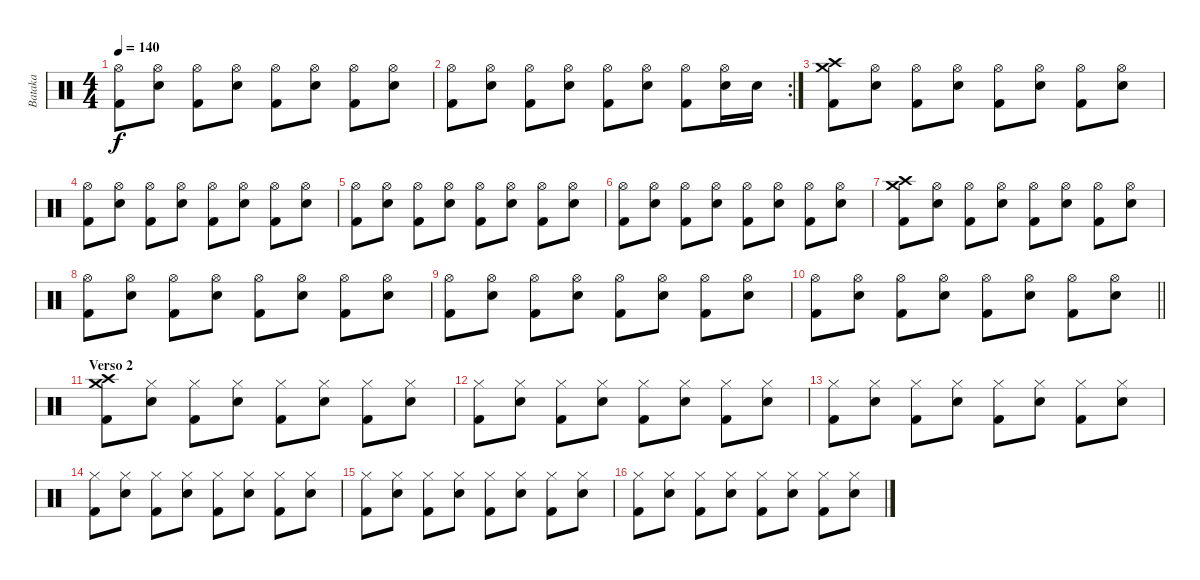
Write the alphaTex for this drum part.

\track ("Bataka" "Bataka") {instrument percussion}
\staff {score}
\articulation defaults
\ts (4 4)
\tempo 140
\clef neutral
\ks c
("Hi-Hat (open)" "Kick (hit) 2").8{dy f} ("Hi-Hat (open)" "Electric Snare (hit)").8 ("Hi-Hat (open)" "Kick (hit) 2").8 ("Hi-Hat (open)" "Electric Snare (hit)").8 ("Hi-Hat (open)" "Kick (hit) 2").8 ("Hi-Hat (open)" "Electric Snare (hit)").8 ("Hi-Hat (open)" "Kick (hit) 2").8 ("Hi-Hat (open)" "Electric Snare (hit)").8 |
\rc 2
("Hi-Hat (open)" "Kick (hit) 2").8 ("Hi-Hat (open)" "Electric Snare (hit)").8 ("Hi-Hat (open)" "Kick (hit) 2").8 ("Hi-Hat (open)" "Electric Snare (hit)").8 ("Hi-Hat (open)" "Kick (hit) 2").8 ("Hi-Hat (open)" "Electric Snare (hit)").8 ("Hi-Hat (open)" "Kick (hit) 2").8 ("Hi-Hat (open)" "Electric Snare (hit)").16 "Electric Snare (hit)".16 |
("Crash high (hit)" "Crash medium (hit)" "Kick (hit) 2").8 ("Hi-Hat (open)" "Electric Snare (hit)").8 ("Hi-Hat (open)" "Kick (hit) 2").8 ("Hi-Hat (open)" "Electric Snare (hit)").8 ("Hi-Hat (open)" "Kick (hit) 2").8 ("Hi-Hat (open)" "Electric Snare (hit)").8 ("Hi-Hat (open)" "Kick (hit) 2").8 ("Hi-Hat (open)" "Electric Snare (hit)").8 |
("Hi-Hat (open)" "Kick (hit) 2").8 ("Hi-Hat (open)" "Electric Snare (hit)").8 ("Hi-Hat (open)" "Kick (hit) 2").8 ("Hi-Hat (open)" "Electric Snare (hit)").8 ("Hi-Hat (open)" "Kick (hit) 2").8 ("Hi-Hat (open)" "Electric Snare (hit)").8 ("Hi-Hat (open)" "Kick (hit) 2").8 ("Hi-Hat (open)" "Electric Snare (hit)").8 |
("Hi-Hat (open)" "Kick (hit) 2").8 ("Hi-Hat (open)" "Electric Snare (hit)").8 ("Hi-Hat (open)" "Kick (hit) 2").8 ("Hi-Hat (open)" "Electric Snare (hit)").8 ("Hi-Hat (open)" "Kick (hit) 2").8 ("Hi-Hat (open)" "Electric Snare (hit)").8 ("Hi-Hat (open)" "Kick (hit) 2").8 ("Hi-Hat (open)" "Electric Snare (hit)").8 |
("Hi-Hat (open)" "Kick (hit) 2").8 ("Hi-Hat (open)" "Electric Snare (hit)").8 ("Hi-Hat (open)" "Kick (hit) 2").8 ("Hi-Hat (open)" "Electric Snare (hit)").8 ("Hi-Hat (open)" "Kick (hit) 2").8 ("Hi-Hat (open)" "Electric Snare (hit)").8 ("Hi-Hat (open)" "Kick (hit) 2").8 ("Hi-Hat (open)" "Electric Snare (hit)").8 |
("Crash high (hit)" "Crash medium (hit)" "Kick (hit) 2").8 ("Hi-Hat (open)" "Electric Snare (hit)").8 ("Hi-Hat (open)" "Kick (hit) 2").8 ("Hi-Hat (open)" "Electric Snare (hit)").8 ("Hi-Hat (open)" "Kick (hit) 2").8 ("Hi-Hat (open)" "Electric Snare (hit)").8 ("Hi-Hat (open)" "Kick (hit) 2").8 ("Hi-Hat (open)" "Electric Snare (hit)").8 |
("Hi-Hat (open)" "Kick (hit) 2").8 ("Hi-Hat (open)" "Electric Snare (hit)").8 ("Hi-Hat (open)" "Kick (hit) 2").8 ("Hi-Hat (open)" "Electric Snare (hit)").8 ("Hi-Hat (open)" "Kick (hit) 2").8 ("Hi-Hat (open)" "Electric Snare (hit)").8 ("Hi-Hat (open)" "Kick (hit) 2").8 ("Hi-Hat (open)" "Electric Snare (hit)").8 |
("Hi-Hat (open)" "Kick (hit) 2").8 ("Hi-Hat (open)" "Electric Snare (hit)").8 ("Hi-Hat (open)" "Kick (hit) 2").8 ("Hi-Hat (open)" "Electric Snare (hit)").8 ("Hi-Hat (open)" "Kick (hit) 2").8 ("Hi-Hat (open)" "Electric Snare (hit)").8 ("Hi-Hat (open)" "Kick (hit) 2").8 ("Hi-Hat (open)" "Electric Snare (hit)").8 |
\barLineRight lightlight
("Hi-Hat (open)" "Kick (hit) 2").8 ("Hi-Hat (open)" "Electric Snare (hit)").8 ("Hi-Hat (open)" "Kick (hit) 2").8 ("Hi-Hat (open)" "Electric Snare (hit)").8 ("Hi-Hat (open)" "Kick (hit) 2").8 ("Hi-Hat (open)" "Electric Snare (hit)").8 ("Hi-Hat (open)" "Kick (hit) 2").8 ("Hi-Hat (open)" "Electric Snare (hit)").8 |
\section ("" "Verso 2")
("Crash high (hit)" "Crash medium (hit)" "Kick (hit) 2").8 ("Hi-Hat (closed)" "Electric Snare (hit)").8 ("Hi-Hat (closed)" "Kick (hit) 2").8 ("Hi-Hat (closed)" "Electric Snare (hit)").8 ("Hi-Hat (closed)" "Kick (hit) 2").8 ("Hi-Hat (closed)" "Electric Snare (hit)").8 ("Hi-Hat (closed)" "Kick (hit) 2").8 ("Hi-Hat (closed)" "Electric Snare (hit)").8 |
("Hi-Hat (closed)" "Kick (hit) 2").8 ("Hi-Hat (closed)" "Electric Snare (hit)").8 ("Hi-Hat (closed)" "Kick (hit) 2").8 ("Hi-Hat (closed)" "Electric Snare (hit)").8 ("Hi-Hat (closed)" "Kick (hit) 2").8 ("Hi-Hat (closed)" "Electric Snare (hit)").8 ("Hi-Hat (closed)" "Kick (hit) 2").8 ("Hi-Hat (closed)" "Electric Snare (hit)").8 |
("Hi-Hat (closed)" "Kick (hit) 2").8 ("Hi-Hat (closed)" "Electric Snare (hit)").8 ("Hi-Hat (closed)" "Kick (hit) 2").8 ("Hi-Hat (closed)" "Electric Snare (hit)").8 ("Hi-Hat (closed)" "Kick (hit) 2").8 ("Hi-Hat (closed)" "Electric Snare (hit)").8 ("Hi-Hat (closed)" "Kick (hit) 2").8 ("Hi-Hat (closed)" "Electric Snare (hit)").8 |
("Hi-Hat (closed)" "Kick (hit) 2").8 ("Hi-Hat (closed)" "Electric Snare (hit)").8 ("Hi-Hat (closed)" "Kick (hit) 2").8 ("Hi-Hat (closed)" "Electric Snare (hit)").8 ("Hi-Hat (closed)" "Kick (hit) 2").8 ("Hi-Hat (closed)" "Electric Snare (hit)").8 ("Hi-Hat (closed)" "Kick (hit) 2").8 ("Hi-Hat (closed)" "Electric Snare (hit)").8 |
("Hi-Hat (closed)" "Kick (hit) 2").8 ("Hi-Hat (closed)" "Electric Snare (hit)").8 ("Hi-Hat (closed)" "Kick (hit) 2").8 ("Hi-Hat (closed)" "Electric Snare (hit)").8 ("Hi-Hat (closed)" "Kick (hit) 2").8 ("Hi-Hat (closed)" "Electric Snare (hit)").8 ("Hi-Hat (closed)" "Kick (hit) 2").8 ("Hi-Hat (closed)" "Electric Snare (hit)").8 |
("Hi-Hat (closed)" "Kick (hit) 2").8 ("Hi-Hat (closed)" "Electric Snare (hit)").8 ("Hi-Hat (closed)" "Kick (hit) 2").8 ("Hi-Hat (closed)" "Electric Snare (hit)").8 ("Hi-Hat (closed)" "Kick (hit) 2").8 ("Hi-Hat (closed)" "Electric Snare (hit)").8 ("Hi-Hat (closed)" "Kick (hit) 2").8 ("Hi-Hat (closed)" "Electric Snare (hit)").8
